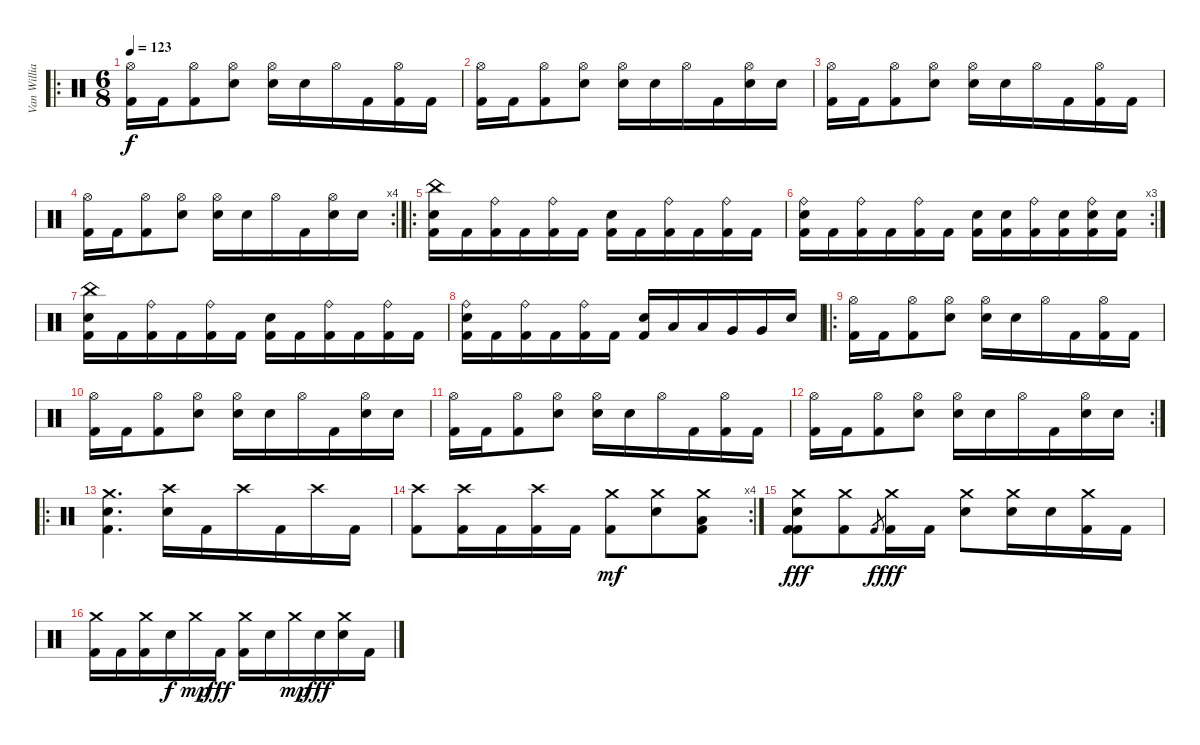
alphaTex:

\track ("Van Williams" "Van Willia") {instrument percussion}
\staff {score}
\articulation defaults
\ro
\ts (6 8)
\tempo 123
\clef neutral
\ks c
("Hi-Hat (open)" "Kick (hit) 2").16{dy f} "Kick (hit) 2".16 ("Hi-Hat (open)" "Kick (hit) 2").8 ("Hi-Hat (open)" "Electric Snare (hit)").8 ("Hi-Hat (open)" "Electric Snare (hit)").16 "Electric Snare (hit)".16 "Hi-Hat (open)".16 "Kick (hit) 2".16 ("Hi-Hat (open)" "Kick (hit) 2").16 "Kick (hit) 2".16 |
("Hi-Hat (open)" "Kick (hit) 2").16 "Kick (hit) 2".16 ("Hi-Hat (open)" "Kick (hit) 2").8 ("Hi-Hat (open)" "Electric Snare (hit)").8 ("Hi-Hat (open)" "Electric Snare (hit)").16 "Electric Snare (hit)".16 "Hi-Hat (open)".16 "Kick (hit) 2".16 ("Hi-Hat (open)" "Electric Snare (hit)").16 "Electric Snare (hit)".16 |
("Hi-Hat (open)" "Kick (hit) 2").16 "Kick (hit) 2".16 ("Hi-Hat (open)" "Kick (hit) 2").8 ("Hi-Hat (open)" "Electric Snare (hit)").8 ("Hi-Hat (open)" "Electric Snare (hit)").16 "Electric Snare (hit)".16 "Hi-Hat (open)".16 "Kick (hit) 2".16 ("Hi-Hat (open)" "Kick (hit) 2").16 "Kick (hit) 2".16 |
\rc 4
("Hi-Hat (open)" "Kick (hit) 2").16 "Kick (hit) 2".16 ("Hi-Hat (open)" "Kick (hit) 2").8 ("Hi-Hat (open)" "Electric Snare (hit)").8 ("Hi-Hat (open)" "Electric Snare (hit)").16 "Electric Snare (hit)".16 "Hi-Hat (open)".16 "Kick (hit) 2".16 ("Hi-Hat (open)" "Electric Snare (hit)").16 "Electric Snare (hit)".16 |
\ro
("China (hit)" "Electric Snare (hit)" "Kick (hit) 2").16 "Kick (hit) 2".16 ("Ride (bell)" "Kick (hit) 2").16 "Kick (hit) 2".16 ("Ride (bell)" "Kick (hit) 2").16 "Kick (hit) 2".16 ("Electric Snare (hit)" "Kick (hit) 2").16 "Kick (hit) 2".16 ("Ride (bell)" "Kick (hit) 2").16 "Kick (hit) 2".16 ("Ride (bell)" "Kick (hit) 2").16 "Kick (hit) 2".16 |
\rc 3
("Ride (bell)" "Electric Snare (hit)" "Kick (hit) 2").16 "Kick (hit) 2".16 ("Ride (bell)" "Kick (hit) 2").16 "Kick (hit) 2".16 ("Ride (bell)" "Kick (hit) 2").16 "Kick (hit) 2".16 ("Electric Snare (hit)" "Kick (hit) 2").16 ("Electric Snare (hit)" "Kick (hit) 2").16 ("Ride (bell)" "Kick (hit) 2").16 ("Electric Snare (hit)" "Kick (hit) 2").16 ("Ride (bell)" "Electric Snare (hit)" "Kick (hit) 2").16 ("Electric Snare (hit)" "Kick (hit) 2").16 |
("China (hit)" "Electric Snare (hit)" "Kick (hit) 2").16 "Kick (hit) 2".16 ("Ride (bell)" "Kick (hit) 2").16 "Kick (hit) 2".16 ("Ride (bell)" "Kick (hit) 2").16 "Kick (hit) 2".16 ("Electric Snare (hit)" "Kick (hit) 2").16 "Kick (hit) 2".16 ("Ride (bell)" "Kick (hit) 2").16 "Kick (hit) 2".16 ("Ride (bell)" "Kick (hit) 2").16 "Kick (hit) 2".16 |
("Ride (bell)" "Electric Snare (hit)" "Kick (hit) 2").16 "Kick (hit) 2".16 ("Ride (bell)" "Kick (hit) 2").16 "Kick (hit) 2".16 ("Ride (bell)" "Kick (hit) 2").16 "Kick (hit) 2".16 ("Electric Snare (hit)" "Kick (hit) 2").16 "Low Tom (hit)".16 "Low Tom (hit)".16 "Very Low Tom (hit)".16 "Very Low Tom (hit)".16 "Electric Snare (hit)".16 |
\ro
("Hi-Hat (open)" "Kick (hit) 2").16 "Kick (hit) 2".16 ("Hi-Hat (open)" "Kick (hit) 2").8 ("Hi-Hat (open)" "Electric Snare (hit)").8 ("Hi-Hat (open)" "Electric Snare (hit)").16 "Electric Snare (hit)".16 "Hi-Hat (open)".16 "Kick (hit) 2".16 ("Hi-Hat (open)" "Kick (hit) 2").16 "Kick (hit) 2".16 |
("Hi-Hat (open)" "Kick (hit) 2").16 "Kick (hit) 2".16 ("Hi-Hat (open)" "Kick (hit) 2").8 ("Hi-Hat (open)" "Electric Snare (hit)").8 ("Hi-Hat (open)" "Electric Snare (hit)").16 "Electric Snare (hit)".16 "Hi-Hat (open)".16 "Kick (hit) 2".16 ("Hi-Hat (open)" "Electric Snare (hit)").16 "Electric Snare (hit)".16 |
("Hi-Hat (open)" "Kick (hit) 2").16 "Kick (hit) 2".16 ("Hi-Hat (open)" "Kick (hit) 2").8 ("Hi-Hat (open)" "Electric Snare (hit)").8 ("Hi-Hat (open)" "Electric Snare (hit)").16 "Electric Snare (hit)".16 "Hi-Hat (open)".16 "Kick (hit) 2".16 ("Hi-Hat (open)" "Kick (hit) 2").16 "Kick (hit) 2".16 |
\rc 2
("Hi-Hat (open)" "Kick (hit) 2").16 "Kick (hit) 2".16 ("Hi-Hat (open)" "Kick (hit) 2").8 ("Hi-Hat (open)" "Electric Snare (hit)").8 ("Hi-Hat (open)" "Electric Snare (hit)").16 "Electric Snare (hit)".16 "Hi-Hat (open)".16 "Kick (hit) 2".16 ("Hi-Hat (open)" "Electric Snare (hit)").16 "Electric Snare (hit)".16 |
\ro
("Crash medium (hit)" "Electric Snare (hit)" "Kick (hit) 2").4{d} ("Crash high (hit)" "Electric Snare (hit)").16 "Kick (hit) 2".16 "Crash high (hit)".16 "Kick (hit) 2".16 "Crash high (hit)".16 "Kick (hit) 2".16 |
\rc 4
("Crash high (hit)" "Kick (hit) 2").8 ("Crash high (hit)" "Kick (hit) 2").16 "Kick (hit) 2".16 ("Crash high (hit)" "Kick (hit) 2").16 "Kick (hit) 2".16 ("Crash medium (hit)" "Kick (hit) 2").8{dy mf} ("Crash medium (hit)" "Electric Snare (hit)").8 ("Crash medium (hit)" "Low Floor Tom (hit)" "Kick (hit) 2").8 |
("Crash medium (hit)" "Electric Snare (hit)" "Kick (hit) 2" "Kick (hit) 2").8{dy fff} ("Crash medium (hit)" "Kick (hit) 2").8 "Kick (hit) 2".8{gr dy f} ("Crash medium (hit)" "Kick (hit) 2").16{dy fff} "Kick (hit) 2".16 ("Crash medium (hit)" "Electric Snare (hit)").8 ("Crash medium (hit)" "Electric Snare (hit)").16 "Electric Snare (hit)".16 ("Crash medium (hit)" "Kick (hit) 2").16 "Kick (hit) 2".16 |
("Crash medium (hit)" "Kick (hit) 2").16 "Kick (hit) 2".16 ("Crash medium (hit)" "Kick (hit) 2").16 "Electric Snare (hit)".16{dy f} "Crash medium (hit)".16{dy mp} "Kick (hit) 2".16{dy fff} ("Crash medium (hit)" "Kick (hit) 2").16 "Electric Snare (hit)".16 "Crash medium (hit)".16{dy mp} "Electric Snare (hit)".16{dy fff} ("Crash medium (hit)" "Electric Snare (hit)").16 "Kick (hit) 2".16
